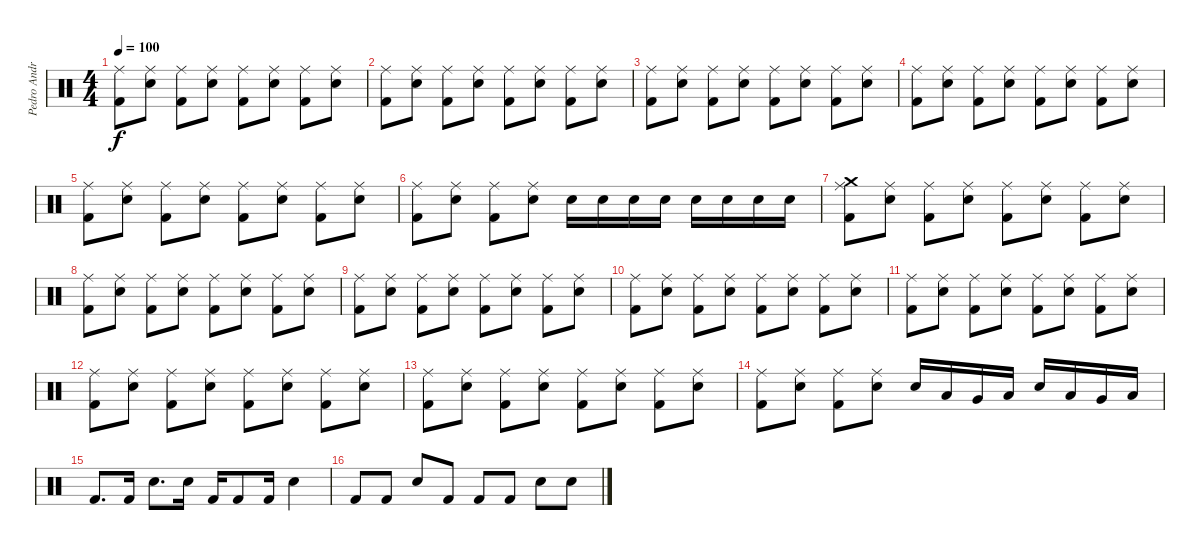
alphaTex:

\track ("Pedro Andreu" "Pedro Andr") {instrument percussion}
\staff {score}
\articulation defaults
\ts (4 4)
\tempo 100
\clef neutral
\ks c
("Ride (middle)" "Kick (hit) 2").8{dy f} ("Ride (middle)" "Snare (hit) 2").8 ("Ride (middle)" "Kick (hit) 2").8 ("Ride (middle)" "Snare (hit) 2").8 ("Ride (middle)" "Kick (hit) 2").8 ("Snare (hit) 2" "Ride (middle)").8 ("Kick (hit) 2" "Ride (middle)").8 ("Snare (hit) 2" "Ride (middle)").8 |
("Ride (middle)" "Kick (hit) 2").8 ("Ride (middle)" "Snare (hit) 2").8 ("Ride (middle)" "Kick (hit) 2").8 ("Ride (middle)" "Snare (hit) 2").8 ("Ride (middle)" "Kick (hit) 2").8 ("Snare (hit) 2" "Ride (middle)").8 ("Kick (hit) 2" "Ride (middle)").8 ("Snare (hit) 2" "Ride (middle)").8 |
("Ride (middle)" "Kick (hit) 2").8 ("Ride (middle)" "Snare (hit) 2").8 ("Ride (middle)" "Kick (hit) 2").8 ("Ride (middle)" "Snare (hit) 2").8 ("Ride (middle)" "Kick (hit) 2").8 ("Snare (hit) 2" "Ride (middle)").8 ("Kick (hit) 2" "Ride (middle)").8 ("Snare (hit) 2" "Ride (middle)").8 |
("Ride (middle)" "Kick (hit) 2").8 ("Ride (middle)" "Snare (hit) 2").8 ("Ride (middle)" "Kick (hit) 2").8 ("Ride (middle)" "Snare (hit) 2").8 ("Ride (middle)" "Kick (hit) 2").8 ("Snare (hit) 2" "Ride (middle)").8 ("Kick (hit) 2" "Ride (middle)").8 ("Snare (hit) 2" "Ride (middle)").8 |
("Ride (middle)" "Kick (hit) 2").8 ("Ride (middle)" "Snare (hit) 2").8 ("Ride (middle)" "Kick (hit) 2").8 ("Ride (middle)" "Snare (hit) 2").8 ("Ride (middle)" "Kick (hit) 2").8 ("Snare (hit) 2" "Ride (middle)").8 ("Kick (hit) 2" "Ride (middle)").8 ("Snare (hit) 2" "Ride (middle)").8 |
("Ride (middle)" "Kick (hit) 2").8 ("Ride (middle)" "Snare (hit) 2").8 ("Ride (middle)" "Kick (hit) 2").8 ("Ride (middle)" "Snare (hit) 2").8 "Snare (hit) 2".16 "Snare (hit) 2".16 "Snare (hit) 2".16 "Snare (hit) 2".16 "Snare (hit) 2".16 "Snare (hit) 2".16 "Snare (hit) 2".16 "Snare (hit) 2".16 |
("Crash medium (hit)" "Ride (middle)" "Kick (hit) 2").8 ("Ride (middle)" "Snare (hit) 2").8 ("Ride (middle)" "Kick (hit) 2").8 ("Ride (middle)" "Snare (hit) 2").8 ("Ride (middle)" "Kick (hit) 2").8 ("Snare (hit) 2" "Ride (middle)").8 ("Kick (hit) 2" "Ride (middle)").8 ("Snare (hit) 2" "Ride (middle)").8 |
("Ride (middle)" "Kick (hit) 2").8 ("Ride (middle)" "Snare (hit) 2").8 ("Ride (middle)" "Kick (hit) 2").8 ("Ride (middle)" "Snare (hit) 2").8 ("Ride (middle)" "Kick (hit) 2").8 ("Snare (hit) 2" "Ride (middle)").8 ("Kick (hit) 2" "Ride (middle)").8 ("Snare (hit) 2" "Ride (middle)").8 |
("Ride (middle)" "Kick (hit) 2").8 ("Ride (middle)" "Snare (hit) 2").8 ("Ride (middle)" "Kick (hit) 2").8 ("Ride (middle)" "Snare (hit) 2").8 ("Ride (middle)" "Kick (hit) 2").8 ("Snare (hit) 2" "Ride (middle)").8 ("Kick (hit) 2" "Ride (middle)").8 ("Snare (hit) 2" "Ride (middle)").8 |
("Ride (middle)" "Kick (hit) 2").8 ("Ride (middle)" "Snare (hit) 2").8 ("Ride (middle)" "Kick (hit) 2").8 ("Ride (middle)" "Snare (hit) 2").8 ("Ride (middle)" "Kick (hit) 2").8 ("Snare (hit) 2" "Ride (middle)").8 ("Kick (hit) 2" "Ride (middle)").8 ("Snare (hit) 2" "Ride (middle)").8 |
("Ride (middle)" "Kick (hit) 2").8 ("Ride (middle)" "Snare (hit) 2").8 ("Ride (middle)" "Kick (hit) 2").8 ("Ride (middle)" "Snare (hit) 2").8 ("Ride (middle)" "Kick (hit) 2").8 ("Snare (hit) 2" "Ride (middle)").8 ("Kick (hit) 2" "Ride (middle)").8 ("Snare (hit) 2" "Ride (middle)").8 |
("Ride (middle)" "Kick (hit) 2").8 ("Ride (middle)" "Snare (hit) 2").8 ("Ride (middle)" "Kick (hit) 2").8 ("Ride (middle)" "Snare (hit) 2").8 ("Ride (middle)" "Kick (hit) 2").8 ("Snare (hit) 2" "Ride (middle)").8 ("Kick (hit) 2" "Ride (middle)").8 ("Snare (hit) 2" "Ride (middle)").8 |
("Ride (middle)" "Kick (hit) 2").8 ("Ride (middle)" "Snare (hit) 2").8 ("Ride (middle)" "Kick (hit) 2").8 ("Ride (middle)" "Snare (hit) 2").8 ("Ride (middle)" "Kick (hit) 2").8 ("Snare (hit) 2" "Ride (middle)").8 ("Kick (hit) 2" "Ride (middle)").8 ("Snare (hit) 2" "Ride (middle)").8 |
("Ride (middle)" "Kick (hit) 2").8 ("Ride (middle)" "Snare (hit) 2").8 ("Ride (middle)" "Kick (hit) 2").8 ("Ride (middle)" "Snare (hit) 2").8 "Snare (hit) 2".16 "Low Tom (hit)".16 "Very Low Tom (hit)".16 "Low Floor Tom (hit)".16 "Snare (hit) 2".16 "Low Tom (hit)".16 "Very Low Tom (hit)".16 "Low Floor Tom (hit)".16 |
"Kick (hit) 2".8{d} "Kick (hit) 2".16 "Snare (hit) 2".8{d} "Snare (hit) 2".16 "Kick (hit) 2".16 "Kick (hit) 2".8 "Kick (hit) 2".16 "Snare (hit) 2".4 |
"Kick (hit) 2".8 "Kick (hit) 2".8 "Snare (hit) 2".8 "Kick (hit) 2".8 "Kick (hit) 2".8 "Kick (hit) 2".8 "Snare (hit) 2".8 "Snare (hit) 2".8
